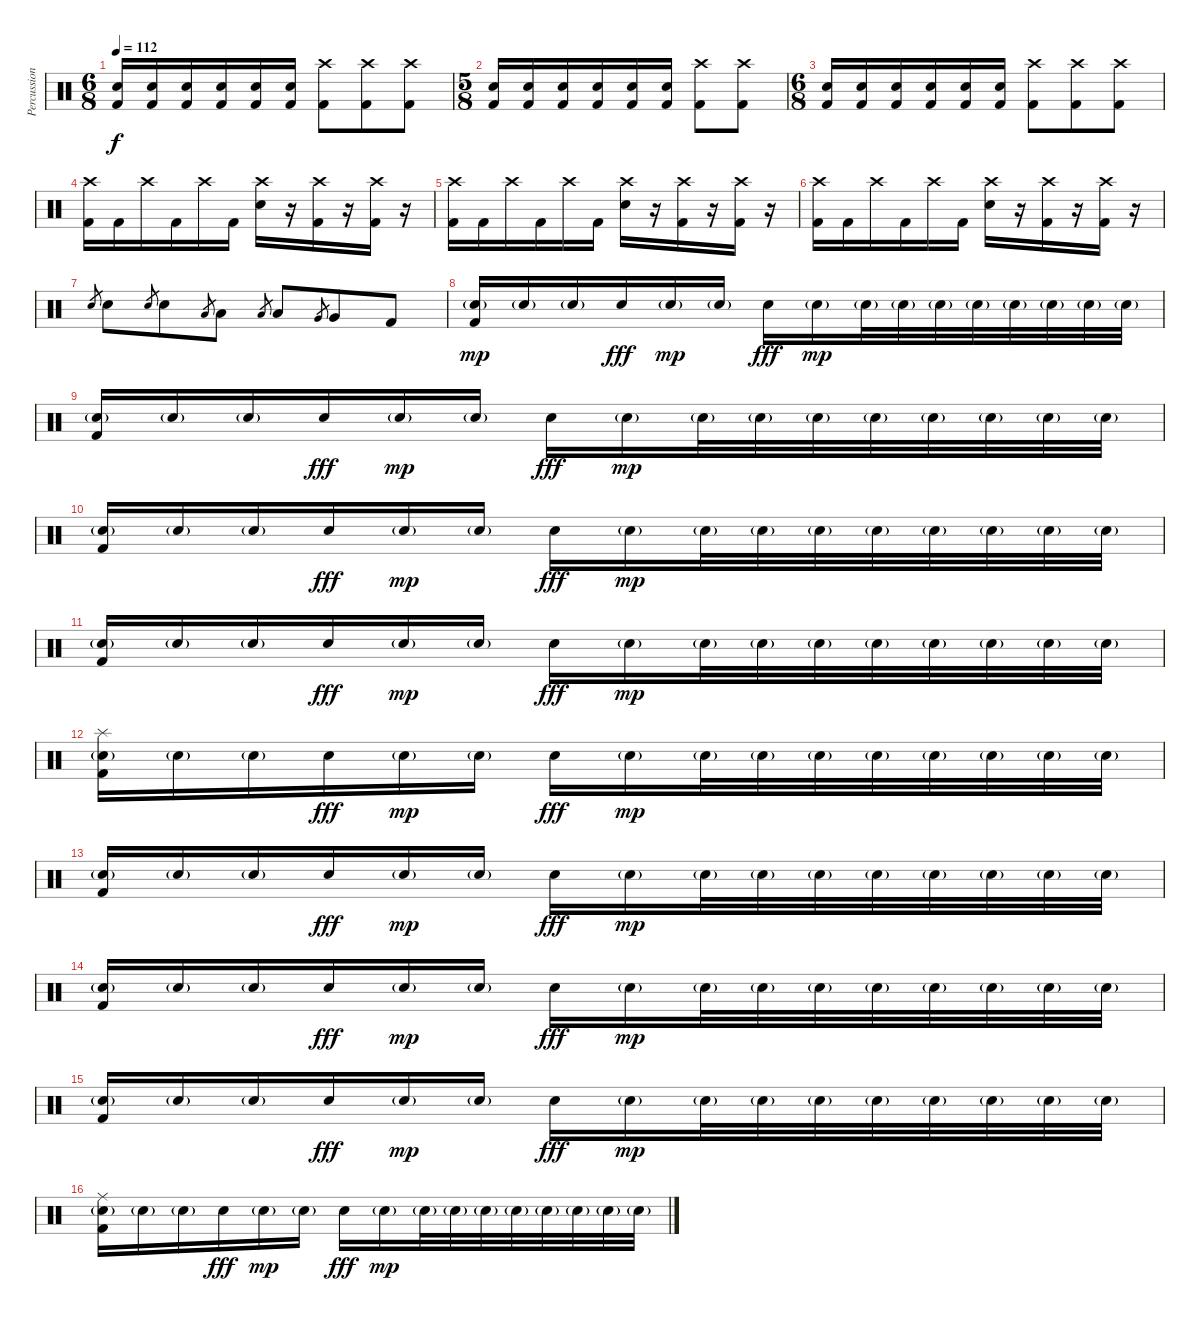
\track ("Percussion" "Percussion") {instrument percussion}
\staff {score}
\articulation defaults
\ts (6 8)
\tempo 112
\clef neutral
\ks c
("Electric Snare (hit)" "Kick (hit) 2").16{dy f} ("Electric Snare (hit)" "Kick (hit) 2").16 ("Electric Snare (hit)" "Kick (hit) 2").16 ("Electric Snare (hit)" "Kick (hit) 2").16 ("Electric Snare (hit)" "Kick (hit) 2").16 ("Electric Snare (hit)" "Kick (hit) 2").16 ("Crash high (hit)" "Kick (hit) 2").8 ("Crash high (hit)" "Kick (hit) 2").8 ("Crash high (hit)" "Kick (hit) 2").8 |
\ts (5 8)
("Electric Snare (hit)" "Kick (hit) 2").16 ("Electric Snare (hit)" "Kick (hit) 2").16 ("Electric Snare (hit)" "Kick (hit) 2").16 ("Electric Snare (hit)" "Kick (hit) 2").16 ("Electric Snare (hit)" "Kick (hit) 2").16 ("Electric Snare (hit)" "Kick (hit) 2").16 ("Crash high (hit)" "Kick (hit) 2").8 ("Crash high (hit)" "Kick (hit) 2").8 |
\ts (6 8)
("Electric Snare (hit)" "Kick (hit) 2").16 ("Electric Snare (hit)" "Kick (hit) 2").16 ("Electric Snare (hit)" "Kick (hit) 2").16 ("Electric Snare (hit)" "Kick (hit) 2").16 ("Electric Snare (hit)" "Kick (hit) 2").16 ("Electric Snare (hit)" "Kick (hit) 2").16 ("Crash high (hit)" "Kick (hit) 2").8 ("Crash high (hit)" "Kick (hit) 2").8 ("Crash high (hit)" "Kick (hit) 2").8 |
("Crash high (hit)" "Kick (hit) 2").16 "Kick (hit) 2".16 "Crash high (hit)".16 "Kick (hit) 2".16 "Crash high (hit)".16 "Kick (hit) 2".16 ("Crash high (hit)" "Electric Snare (hit)").16 r.16 ("Crash high (hit)" "Kick (hit) 2").16 r.16 ("Crash high (hit)" "Kick (hit) 2").16 r.16 |
("Crash high (hit)" "Kick (hit) 2").16 "Kick (hit) 2".16 "Crash high (hit)".16 "Kick (hit) 2".16 "Crash high (hit)".16 "Kick (hit) 2".16 ("Crash high (hit)" "Electric Snare (hit)").16 r.16 ("Crash high (hit)" "Kick (hit) 2").16 r.16 ("Crash high (hit)" "Kick (hit) 2").16 r.16 |
("Crash high (hit)" "Kick (hit) 2").16 "Kick (hit) 2".16 "Crash high (hit)".16 "Kick (hit) 2".16 "Crash high (hit)".16 "Kick (hit) 2".16 ("Crash high (hit)" "Electric Snare (hit)").16 r.16 ("Crash high (hit)" "Kick (hit) 2").16 r.16 ("Crash high (hit)" "Kick (hit) 2").16 r.16 |
"Electric Snare (hit)".8{gr} "Electric Snare (hit)".8 "Electric Snare (hit)".8{gr} "Electric Snare (hit)".8 "Low Tom (hit)".8{gr} "Low Tom (hit)".8 "Low Tom (hit)".8{gr} "Low Tom (hit)".8 "Very Low Tom (hit)".8{gr} "Very Low Tom (hit)".8 "Kick (hit) 2".8 |
("Electric Snare (hit)"{g} "Kick (hit) 2").16{dy mp} "Electric Snare (hit)"{g}.16 "Electric Snare (hit)"{g}.16 "Electric Snare (hit)".16{dy fff} "Electric Snare (hit)"{g}.16{dy mp} "Electric Snare (hit)"{g}.16 "Electric Snare (hit)".16{dy fff} "Electric Snare (hit)"{g}.16{dy mp} "Electric Snare (hit)"{g}.32 "Electric Snare (hit)"{g}.32 "Electric Snare (hit)"{g}.32 "Electric Snare (hit)"{g}.32 "Electric Snare (hit)"{g}.32 "Electric Snare (hit)"{g}.32 "Electric Snare (hit)"{g}.32 "Electric Snare (hit)"{g}.32 |
("Electric Snare (hit)"{g} "Kick (hit) 2").16 "Electric Snare (hit)"{g}.16 "Electric Snare (hit)"{g}.16 "Electric Snare (hit)".16{dy fff} "Electric Snare (hit)"{g}.16{dy mp} "Electric Snare (hit)"{g}.16 "Electric Snare (hit)".16{dy fff} "Electric Snare (hit)"{g}.16{dy mp} "Electric Snare (hit)"{g}.32 "Electric Snare (hit)"{g}.32 "Electric Snare (hit)"{g}.32 "Electric Snare (hit)"{g}.32 "Electric Snare (hit)"{g}.32 "Electric Snare (hit)"{g}.32 "Electric Snare (hit)"{g}.32 "Electric Snare (hit)"{g}.32 |
("Electric Snare (hit)"{g} "Kick (hit) 2").16 "Electric Snare (hit)"{g}.16 "Electric Snare (hit)"{g}.16 "Electric Snare (hit)".16{dy fff} "Electric Snare (hit)"{g}.16{dy mp} "Electric Snare (hit)"{g}.16 "Electric Snare (hit)".16{dy fff} "Electric Snare (hit)"{g}.16{dy mp} "Electric Snare (hit)"{g}.32 "Electric Snare (hit)"{g}.32 "Electric Snare (hit)"{g}.32 "Electric Snare (hit)"{g}.32 "Electric Snare (hit)"{g}.32 "Electric Snare (hit)"{g}.32 "Electric Snare (hit)"{g}.32 "Electric Snare (hit)"{g}.32 |
("Electric Snare (hit)"{g} "Kick (hit) 2").16 "Electric Snare (hit)"{g}.16 "Electric Snare (hit)"{g}.16 "Electric Snare (hit)".16{dy fff} "Electric Snare (hit)"{g}.16{dy mp} "Electric Snare (hit)"{g}.16 "Electric Snare (hit)".16{dy fff} "Electric Snare (hit)"{g}.16{dy mp} "Electric Snare (hit)"{g}.32 "Electric Snare (hit)"{g}.32 "Electric Snare (hit)"{g}.32 "Electric Snare (hit)"{g}.32 "Electric Snare (hit)"{g}.32 "Electric Snare (hit)"{g}.32 "Electric Snare (hit)"{g}.32 "Electric Snare (hit)"{g}.32 |
("Splash (hit)" "Electric Snare (hit)"{g} "Kick (hit) 2").16 "Electric Snare (hit)"{g}.16 "Electric Snare (hit)"{g}.16 "Electric Snare (hit)".16{dy fff} "Electric Snare (hit)"{g}.16{dy mp} "Electric Snare (hit)"{g}.16 "Electric Snare (hit)".16{dy fff} "Electric Snare (hit)"{g}.16{dy mp} "Electric Snare (hit)"{g}.32 "Electric Snare (hit)"{g}.32 "Electric Snare (hit)"{g}.32 "Electric Snare (hit)"{g}.32 "Electric Snare (hit)"{g}.32 "Electric Snare (hit)"{g}.32 "Electric Snare (hit)"{g}.32 "Electric Snare (hit)"{g}.32 |
("Electric Snare (hit)"{g} "Kick (hit) 2").16 "Electric Snare (hit)"{g}.16 "Electric Snare (hit)"{g}.16 "Electric Snare (hit)".16{dy fff} "Electric Snare (hit)"{g}.16{dy mp} "Electric Snare (hit)"{g}.16 "Electric Snare (hit)".16{dy fff} "Electric Snare (hit)"{g}.16{dy mp} "Electric Snare (hit)"{g}.32 "Electric Snare (hit)"{g}.32 "Electric Snare (hit)"{g}.32 "Electric Snare (hit)"{g}.32 "Electric Snare (hit)"{g}.32 "Electric Snare (hit)"{g}.32 "Electric Snare (hit)"{g}.32 "Electric Snare (hit)"{g}.32 |
("Electric Snare (hit)"{g} "Kick (hit) 2").16 "Electric Snare (hit)"{g}.16 "Electric Snare (hit)"{g}.16 "Electric Snare (hit)".16{dy fff} "Electric Snare (hit)"{g}.16{dy mp} "Electric Snare (hit)"{g}.16 "Electric Snare (hit)".16{dy fff} "Electric Snare (hit)"{g}.16{dy mp} "Electric Snare (hit)"{g}.32 "Electric Snare (hit)"{g}.32 "Electric Snare (hit)"{g}.32 "Electric Snare (hit)"{g}.32 "Electric Snare (hit)"{g}.32 "Electric Snare (hit)"{g}.32 "Electric Snare (hit)"{g}.32 "Electric Snare (hit)"{g}.32 |
("Electric Snare (hit)"{g} "Kick (hit) 2").16 "Electric Snare (hit)"{g}.16 "Electric Snare (hit)"{g}.16 "Electric Snare (hit)".16{dy fff} "Electric Snare (hit)"{g}.16{dy mp} "Electric Snare (hit)"{g}.16 "Electric Snare (hit)".16{dy fff} "Electric Snare (hit)"{g}.16{dy mp} "Electric Snare (hit)"{g}.32 "Electric Snare (hit)"{g}.32 "Electric Snare (hit)"{g}.32 "Electric Snare (hit)"{g}.32 "Electric Snare (hit)"{g}.32 "Electric Snare (hit)"{g}.32 "Electric Snare (hit)"{g}.32 "Electric Snare (hit)"{g}.32 |
("Ride (middle)" "Electric Snare (hit)"{g} "Kick (hit) 2").16 "Electric Snare (hit)"{g}.16 "Electric Snare (hit)"{g}.16 "Electric Snare (hit)".16{dy fff} "Electric Snare (hit)"{g}.16{dy mp} "Electric Snare (hit)"{g}.16 "Electric Snare (hit)".16{dy fff} "Electric Snare (hit)"{g}.16{dy mp} "Electric Snare (hit)"{g}.32 "Electric Snare (hit)"{g}.32 "Electric Snare (hit)"{g}.32 "Electric Snare (hit)"{g}.32 "Electric Snare (hit)"{g}.32 "Electric Snare (hit)"{g}.32 "Electric Snare (hit)"{g}.32 "Electric Snare (hit)"{g}.32
